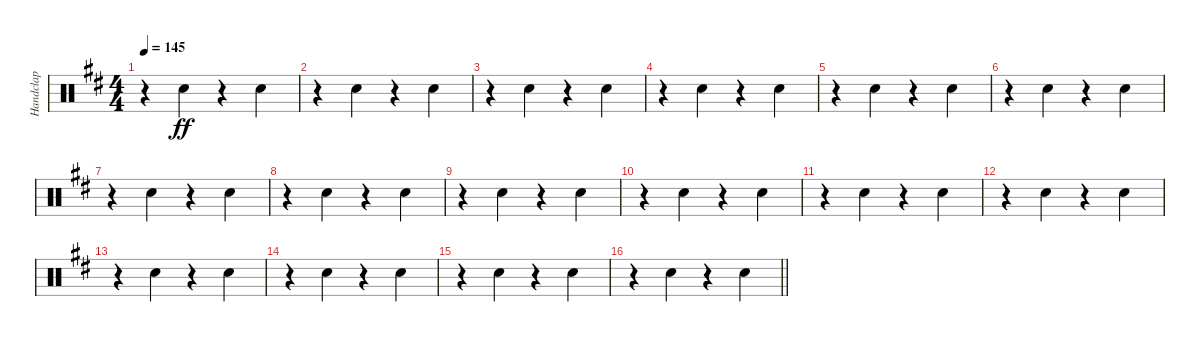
\track ("Handclap" "Handclap") {instrument percussion}
\staff {score}
\articulation defaults
\ts (4 4)
\tempo 145
\clef neutral
\ks d
r.4{dy ff} "Hand Clap (hit)".4 r.4 "Hand Clap (hit)".4 |
r.4 "Hand Clap (hit)".4 r.4 "Hand Clap (hit)".4 |
r.4 "Hand Clap (hit)".4 r.4 "Hand Clap (hit)".4 |
r.4 "Hand Clap (hit)".4 r.4 "Hand Clap (hit)".4 |
r.4 "Hand Clap (hit)".4 r.4 "Hand Clap (hit)".4 |
r.4 "Hand Clap (hit)".4 r.4 "Hand Clap (hit)".4 |
r.4 "Hand Clap (hit)".4 r.4 "Hand Clap (hit)".4 |
r.4 "Hand Clap (hit)".4 r.4 "Hand Clap (hit)".4 |
r.4 "Hand Clap (hit)".4 r.4 "Hand Clap (hit)".4 |
r.4 "Hand Clap (hit)".4 r.4 "Hand Clap (hit)".4 |
r.4 "Hand Clap (hit)".4 r.4 "Hand Clap (hit)".4 |
r.4 "Hand Clap (hit)".4 r.4 "Hand Clap (hit)".4 |
r.4 "Hand Clap (hit)".4 r.4 "Hand Clap (hit)".4 |
r.4 "Hand Clap (hit)".4 r.4 "Hand Clap (hit)".4 |
r.4 "Hand Clap (hit)".4 r.4 "Hand Clap (hit)".4 |
\barLineRight lightlight
r.4 "Hand Clap (hit)".4 r.4 "Hand Clap (hit)".4
